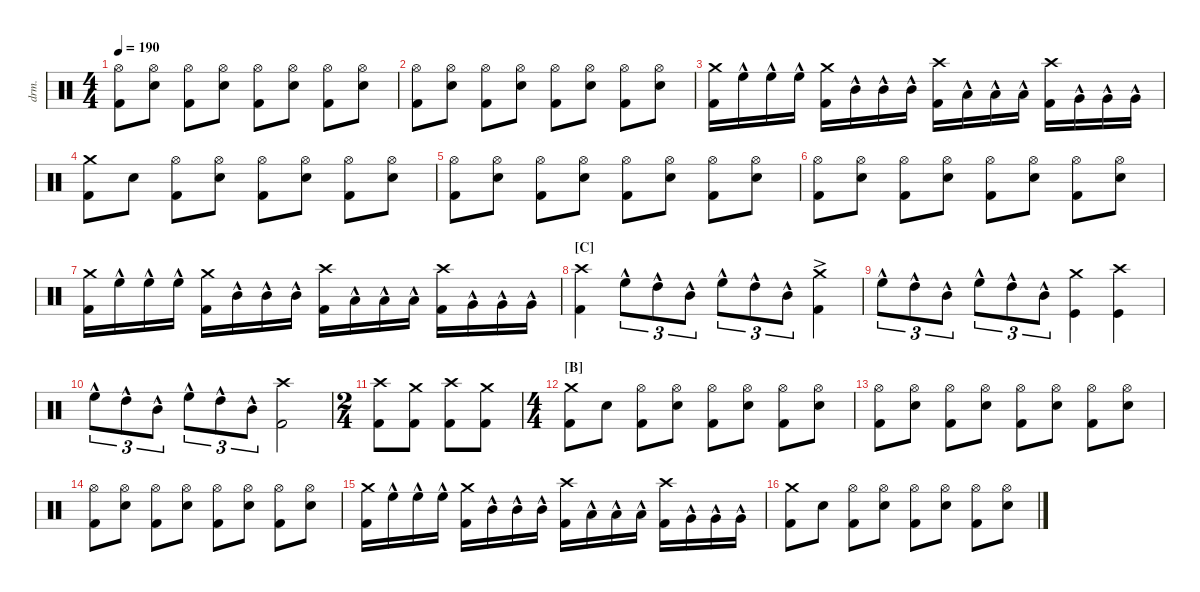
\defaultSystemsLayout 4
\hideDynamics
\bracketExtendMode nobrackets
\otherSystemsTrackNameOrientation horizontal
\track ("Drumkit" "drm.") {instrument percussion}
\staff {score}
\articulation defaults
\ts (4 4)
\tempo 190
\clef neutral
\ks c
("Kick (hit) 2" "Hi-Hat (open)").8{dy mf beam Down} ("Snare (hit) 2" "Hi-Hat (open)").8{beam Down} ("Kick (hit) 2" "Hi-Hat (open)").8{beam Down} ("Snare (hit) 2" "Hi-Hat (open)").8{beam Down} ("Kick (hit) 2" "Hi-Hat (open)").8{beam Down} ("Snare (hit) 2" "Hi-Hat (open)").8{beam Down} ("Kick (hit) 2" "Hi-Hat (open)").8{beam Down} ("Snare (hit) 2" "Hi-Hat (open)").8{beam Down} |
("Kick (hit) 2" "Hi-Hat (open)").8{beam Down} ("Snare (hit) 2" "Hi-Hat (open)").8{beam Down} ("Kick (hit) 2" "Hi-Hat (open)").8{beam Down} ("Snare (hit) 2" "Hi-Hat (open)").8{beam Down} ("Kick (hit) 2" "Hi-Hat (open)").8{beam Down} ("Snare (hit) 2" "Hi-Hat (open)").8{beam Down} ("Kick (hit) 2" "Hi-Hat (open)").8{beam Down} ("Snare (hit) 2" "Hi-Hat (open)").8{beam Down} |
("Crash medium (hit)" "Kick (hit) 2").16{beam Down} "High Floor Tom (hit)"{hac}.16{beam Down} "High Floor Tom (hit)"{hac}.16{beam Down} "High Floor Tom (hit)"{hac}.16{beam Down} ("Kick (hit) 2" "Crash medium (hit)").16{beam Down} "Mid Tom (hit)"{hac}.16{beam Down} "Mid Tom (hit)"{hac}.16{beam Down} "Mid Tom (hit)"{hac}.16{beam Down} ("Kick (hit) 2" "Crash high (hit)").16{beam Down} "Low Tom (hit)"{hac}.16{beam Down} "Low Tom (hit)"{hac}.16{beam Down} "Low Tom (hit)"{hac}.16{beam Down} ("Kick (hit) 2" "Crash high (hit)").16{beam Down} "Very Low Tom (hit)"{hac}.16{beam Down} "Very Low Tom (hit)"{hac}.16{beam Down} "Very Low Tom (hit)"{hac}.16{beam Down} |
("Crash medium (hit)" "Kick (hit) 2").8{beam Down} "Snare (hit) 2".8{beam Down} ("Kick (hit) 2" "Hi-Hat (open)").8{beam Down} ("Snare (hit) 2" "Hi-Hat (open)").8{beam Down} ("Kick (hit) 2" "Hi-Hat (open)").8{beam Down} ("Snare (hit) 2" "Hi-Hat (open)").8{beam Down} ("Kick (hit) 2" "Hi-Hat (open)").8{beam Down} ("Snare (hit) 2" "Hi-Hat (open)").8{beam Down} |
("Kick (hit) 2" "Hi-Hat (open)").8{beam Down} ("Snare (hit) 2" "Hi-Hat (open)").8{beam Down} ("Kick (hit) 2" "Hi-Hat (open)").8{beam Down} ("Snare (hit) 2" "Hi-Hat (open)").8{beam Down} ("Kick (hit) 2" "Hi-Hat (open)").8{beam Down} ("Snare (hit) 2" "Hi-Hat (open)").8{beam Down} ("Kick (hit) 2" "Hi-Hat (open)").8{beam Down} ("Snare (hit) 2" "Hi-Hat (open)").8{beam Down} |
("Kick (hit) 2" "Hi-Hat (open)").8{beam Down} ("Snare (hit) 2" "Hi-Hat (open)").8{beam Down} ("Kick (hit) 2" "Hi-Hat (open)").8{beam Down} ("Snare (hit) 2" "Hi-Hat (open)").8{beam Down} ("Kick (hit) 2" "Hi-Hat (open)").8{beam Down} ("Snare (hit) 2" "Hi-Hat (open)").8{beam Down} ("Kick (hit) 2" "Hi-Hat (open)").8{beam Down} ("Snare (hit) 2" "Hi-Hat (open)").8{beam Down} |
("Crash medium (hit)" "Kick (hit) 2").16{beam Down} "High Floor Tom (hit)"{hac}.16{beam Down} "High Floor Tom (hit)"{hac}.16{beam Down} "High Floor Tom (hit)"{hac}.16{beam Down} ("Kick (hit) 2" "Crash medium (hit)").16{beam Down} "Mid Tom (hit)"{hac}.16{beam Down} "Mid Tom (hit)"{hac}.16{beam Down} "Mid Tom (hit)"{hac}.16{beam Down} ("Kick (hit) 2" "Crash high (hit)").16{beam Down} "Low Tom (hit)"{hac}.16{beam Down} "Low Tom (hit)"{hac}.16{beam Down} "Low Tom (hit)"{hac}.16{beam Down} ("Kick (hit) 2" "Crash high (hit)").16{beam Down} "Very Low Tom (hit)"{hac}.16{beam Down} "Very Low Tom (hit)"{hac}.16{beam Down} "Very Low Tom (hit)"{hac}.16{beam Down} |
\section ("C" "")
("Kick (hit) 2" "Crash high (hit)").4{beam Down} "High Floor Tom (hit)"{hac}.8{tu (3 2) beam Down} "High Tom (hit)"{hac}.8{tu (3 2) beam Down} "Mid Tom (hit)"{hac}.8{tu (3 2) beam Down} "High Floor Tom (hit)"{hac}.8{tu (3 2) beam Down} "High Tom (hit)"{hac}.8{tu (3 2) beam Down} "Mid Tom (hit)"{hac}.8{tu (3 2) beam Down} ("Kick (hit) 2"{ac} "Crash medium (hit)").4{beam Down} |
"High Floor Tom (hit)"{hac}.8{tu (3 2) beam Down} "High Tom (hit)"{hac}.8{tu (3 2) beam Down} "Mid Tom (hit)"{hac}.8{tu (3 2) beam Down} "High Floor Tom (hit)"{hac}.8{tu (3 2) beam Down} "High Tom (hit)"{hac}.8{tu (3 2) beam Down} "Mid Tom (hit)"{hac}.8{tu (3 2) beam Down} ("Kick (hit)" "Crash medium (hit)").4{beam Down} ("Kick (hit)" "Crash high (hit)").4{beam Down} |
"High Floor Tom (hit)"{hac}.8{tu (3 2) beam Down} "High Tom (hit)"{hac}.8{tu (3 2) beam Down} "Mid Tom (hit)"{hac}.8{tu (3 2) beam Down} "High Floor Tom (hit)"{hac}.8{tu (3 2) beam Down} "High Tom (hit)"{hac}.8{tu (3 2) beam Down} "Mid Tom (hit)"{hac}.8{tu (3 2) beam Down} ("Kick (hit) 2" "Crash high (hit)").2{beam Down} |
\ts (2 4)
\beaming (8 2 2)
("Kick (hit) 2" "Crash high (hit)").8{beam Down} ("Kick (hit) 2" "Crash medium (hit)").8{beam Down} ("Kick (hit) 2" "Crash high (hit)").8{beam Down} ("Kick (hit) 2" "Crash medium (hit)").8{beam Down} |
\ts (4 4)
\beaming (8 2 2 2 2)
\section ("B" "")
("Crash medium (hit)" "Kick (hit) 2").8{beam Down} "Snare (hit) 2".8{beam Down} ("Kick (hit) 2" "Hi-Hat (open)").8{beam Down} ("Snare (hit) 2" "Hi-Hat (open)").8{beam Down} ("Kick (hit) 2" "Hi-Hat (open)").8{beam Down} ("Snare (hit) 2" "Hi-Hat (open)").8{beam Down} ("Kick (hit) 2" "Hi-Hat (open)").8{beam Down} ("Snare (hit) 2" "Hi-Hat (open)").8{beam Down} |
("Kick (hit) 2" "Hi-Hat (open)").8{beam Down} ("Snare (hit) 2" "Hi-Hat (open)").8{beam Down} ("Kick (hit) 2" "Hi-Hat (open)").8{beam Down} ("Snare (hit) 2" "Hi-Hat (open)").8{beam Down} ("Kick (hit) 2" "Hi-Hat (open)").8{beam Down} ("Snare (hit) 2" "Hi-Hat (open)").8{beam Down} ("Kick (hit) 2" "Hi-Hat (open)").8{beam Down} ("Snare (hit) 2" "Hi-Hat (open)").8{beam Down} |
("Kick (hit) 2" "Hi-Hat (open)").8{beam Down} ("Snare (hit) 2" "Hi-Hat (open)").8{beam Down} ("Kick (hit) 2" "Hi-Hat (open)").8{beam Down} ("Snare (hit) 2" "Hi-Hat (open)").8{beam Down} ("Kick (hit) 2" "Hi-Hat (open)").8{beam Down} ("Snare (hit) 2" "Hi-Hat (open)").8{beam Down} ("Kick (hit) 2" "Hi-Hat (open)").8{beam Down} ("Snare (hit) 2" "Hi-Hat (open)").8{beam Down} |
("Crash medium (hit)" "Kick (hit) 2").16{beam Down} "High Floor Tom (hit)"{hac}.16{beam Down} "High Floor Tom (hit)"{hac}.16{beam Down} "High Floor Tom (hit)"{hac}.16{beam Down} ("Kick (hit) 2" "Crash medium (hit)").16{beam Down} "Mid Tom (hit)"{hac}.16{beam Down} "Mid Tom (hit)"{hac}.16{beam Down} "Mid Tom (hit)"{hac}.16{beam Down} ("Kick (hit) 2" "Crash high (hit)").16{beam Down} "Low Tom (hit)"{hac}.16{beam Down} "Low Tom (hit)"{hac}.16{beam Down} "Low Tom (hit)"{hac}.16{beam Down} ("Kick (hit) 2" "Crash high (hit)").16{beam Down} "Very Low Tom (hit)"{hac}.16{beam Down} "Very Low Tom (hit)"{hac}.16{beam Down} "Very Low Tom (hit)"{hac}.16{beam Down} |
("Crash medium (hit)" "Kick (hit) 2").8{beam Down} "Snare (hit) 2".8{beam Down} ("Kick (hit) 2" "Hi-Hat (open)").8{beam Down} ("Snare (hit) 2" "Hi-Hat (open)").8{beam Down} ("Kick (hit) 2" "Hi-Hat (open)").8{beam Down} ("Snare (hit) 2" "Hi-Hat (open)").8{beam Down} ("Kick (hit) 2" "Hi-Hat (open)").8{beam Down} ("Snare (hit) 2" "Hi-Hat (open)").8{beam Down}
